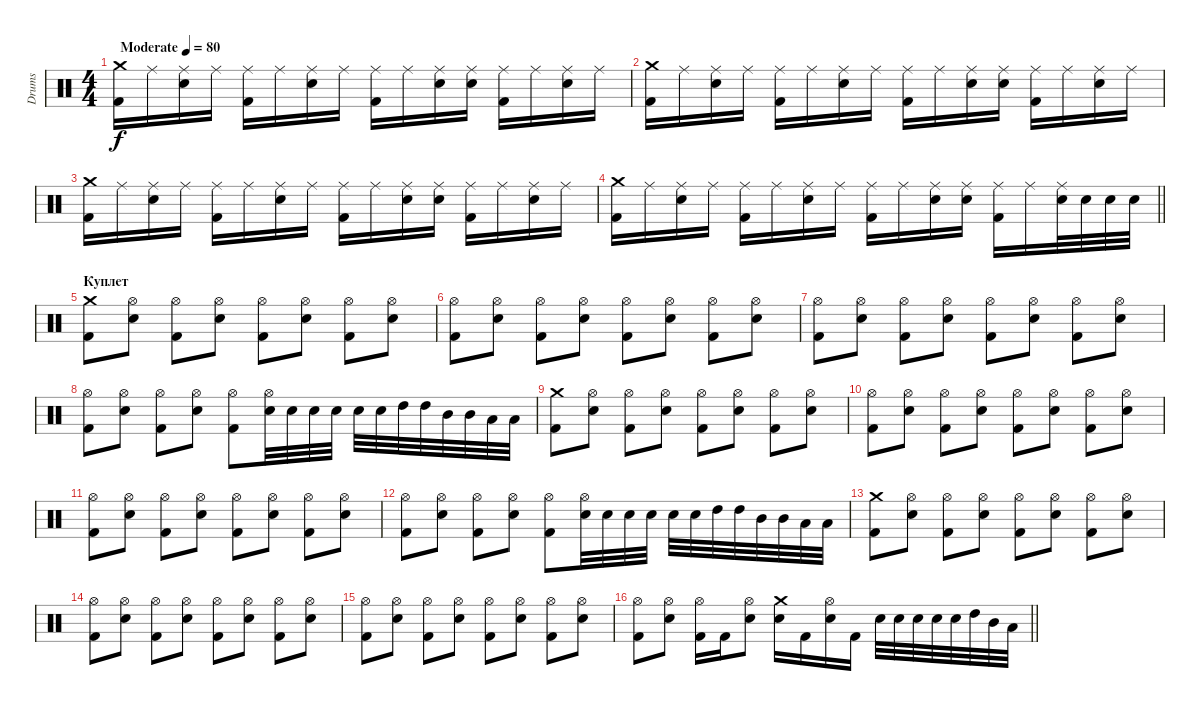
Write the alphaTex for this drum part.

\track ("Drums" "Drums") {instrument percussion}
\staff {score}
\articulation defaults
\ts (4 4)
\tempo (80 "Moderate")
\clef neutral
\ks c
("Crash medium (hit)" "Kick (hit) 2").16{dy f} "Ride (middle)".16 ("Ride (middle)" "Snare (hit) 2").16 "Ride (middle)".16 ("Ride (middle)" "Kick (hit) 2").16 "Ride (middle)".16 ("Ride (middle)" "Snare (hit) 2").16 "Ride (middle)".16 ("Ride (middle)" "Kick (hit) 2").16 "Ride (middle)".16 ("Ride (middle)" "Snare (hit) 2").16 ("Ride (middle)" "Snare (hit) 2").16 ("Ride (middle)" "Kick (hit) 2").16 "Ride (middle)".16 ("Ride (middle)" "Snare (hit) 2").16 "Ride (middle)".16 |
("Crash medium (hit)" "Kick (hit) 2").16 "Ride (middle)".16 ("Ride (middle)" "Snare (hit) 2").16 "Ride (middle)".16 ("Ride (middle)" "Kick (hit) 2").16 "Ride (middle)".16 ("Ride (middle)" "Snare (hit) 2").16 "Ride (middle)".16 ("Ride (middle)" "Kick (hit) 2").16 "Ride (middle)".16 ("Ride (middle)" "Snare (hit) 2").16 ("Ride (middle)" "Snare (hit) 2").16 ("Ride (middle)" "Kick (hit) 2").16 "Ride (middle)".16 ("Ride (middle)" "Snare (hit) 2").16 "Ride (middle)".16 |
("Crash medium (hit)" "Kick (hit) 2").16 "Ride (middle)".16 ("Ride (middle)" "Snare (hit) 2").16 "Ride (middle)".16 ("Ride (middle)" "Kick (hit) 2").16 "Ride (middle)".16 ("Ride (middle)" "Snare (hit) 2").16 "Ride (middle)".16 ("Ride (middle)" "Kick (hit) 2").16 "Ride (middle)".16 ("Ride (middle)" "Snare (hit) 2").16 ("Ride (middle)" "Snare (hit) 2").16 ("Ride (middle)" "Kick (hit) 2").16 "Ride (middle)".16 ("Ride (middle)" "Snare (hit) 2").16 "Ride (middle)".16 |
\barLineRight lightlight
("Crash medium (hit)" "Kick (hit) 2").16 "Ride (middle)".16 ("Ride (middle)" "Snare (hit) 2").16 "Ride (middle)".16 ("Ride (middle)" "Kick (hit) 2").16 "Ride (middle)".16 ("Ride (middle)" "Snare (hit) 2").16 "Ride (middle)".16 ("Ride (middle)" "Kick (hit) 2").16 "Ride (middle)".16 ("Ride (middle)" "Snare (hit) 2").16 ("Ride (middle)" "Snare (hit) 2").16 ("Ride (middle)" "Kick (hit) 2").16 "Ride (middle)".16 ("Ride (middle)" "Snare (hit) 2").32 "Snare (hit) 2".32 "Snare (hit) 2".32 "Snare (hit) 2".32 |
\section ("" "Куплет")
("Crash medium (hit)" "Kick (hit) 2").8 ("Hi-Hat (open)" "Snare (hit) 2").8 ("Hi-Hat (open)" "Kick (hit) 2").8 ("Hi-Hat (open)" "Snare (hit) 2").8 ("Hi-Hat (open)" "Kick (hit) 2").8 ("Hi-Hat (open)" "Snare (hit) 2").8 ("Hi-Hat (open)" "Kick (hit) 2").8 ("Hi-Hat (open)" "Snare (hit) 2").8 |
("Hi-Hat (open)" "Kick (hit) 2").8 ("Hi-Hat (open)" "Snare (hit) 2").8 ("Hi-Hat (open)" "Kick (hit) 2").8 ("Hi-Hat (open)" "Snare (hit) 2").8 ("Hi-Hat (open)" "Kick (hit) 2").8 ("Hi-Hat (open)" "Snare (hit) 2").8 ("Hi-Hat (open)" "Kick (hit) 2").8 ("Hi-Hat (open)" "Snare (hit) 2").8 |
("Hi-Hat (open)" "Kick (hit) 2").8 ("Hi-Hat (open)" "Snare (hit) 2").8 ("Hi-Hat (open)" "Kick (hit) 2").8 ("Hi-Hat (open)" "Snare (hit) 2").8 ("Hi-Hat (open)" "Kick (hit) 2").8 ("Hi-Hat (open)" "Snare (hit) 2").8 ("Hi-Hat (open)" "Kick (hit) 2").8 ("Hi-Hat (open)" "Snare (hit) 2").8 |
("Hi-Hat (open)" "Kick (hit) 2").8 ("Hi-Hat (open)" "Snare (hit) 2").8 ("Hi-Hat (open)" "Kick (hit) 2").8 ("Hi-Hat (open)" "Snare (hit) 2").8 ("Hi-Hat (open)" "Kick (hit) 2").8 ("Hi-Hat (open)" "Snare (hit) 2").32 "Snare (hit) 2".32 "Snare (hit) 2".32 "Snare (hit) 2".32 "Snare (hit) 2".32 "Snare (hit) 2".32 "High Tom (hit)".32 "High Tom (hit)".32 "Mid Tom (hit)".32 "Mid Tom (hit)".32 "Low Tom (hit)".32 "Low Tom (hit)".32 |
("Crash medium (hit)" "Kick (hit) 2").8 ("Hi-Hat (open)" "Snare (hit) 2").8 ("Hi-Hat (open)" "Kick (hit) 2").8 ("Hi-Hat (open)" "Snare (hit) 2").8 ("Hi-Hat (open)" "Kick (hit) 2").8 ("Hi-Hat (open)" "Snare (hit) 2").8 ("Hi-Hat (open)" "Kick (hit) 2").8 ("Hi-Hat (open)" "Snare (hit) 2").8 |
("Hi-Hat (open)" "Kick (hit) 2").8 ("Hi-Hat (open)" "Snare (hit) 2").8 ("Hi-Hat (open)" "Kick (hit) 2").8 ("Hi-Hat (open)" "Snare (hit) 2").8 ("Hi-Hat (open)" "Kick (hit) 2").8 ("Hi-Hat (open)" "Snare (hit) 2").8 ("Hi-Hat (open)" "Kick (hit) 2").8 ("Hi-Hat (open)" "Snare (hit) 2").8 |
("Hi-Hat (open)" "Kick (hit) 2").8 ("Hi-Hat (open)" "Snare (hit) 2").8 ("Hi-Hat (open)" "Kick (hit) 2").8 ("Hi-Hat (open)" "Snare (hit) 2").8 ("Hi-Hat (open)" "Kick (hit) 2").8 ("Hi-Hat (open)" "Snare (hit) 2").8 ("Hi-Hat (open)" "Kick (hit) 2").8 ("Hi-Hat (open)" "Snare (hit) 2").8 |
("Hi-Hat (open)" "Kick (hit) 2").8 ("Hi-Hat (open)" "Snare (hit) 2").8 ("Hi-Hat (open)" "Kick (hit) 2").8 ("Hi-Hat (open)" "Snare (hit) 2").8 ("Hi-Hat (open)" "Kick (hit) 2").8 ("Hi-Hat (open)" "Snare (hit) 2").32 "Snare (hit) 2".32 "Snare (hit) 2".32 "Snare (hit) 2".32 "Snare (hit) 2".32 "Snare (hit) 2".32 "High Tom (hit)".32 "High Tom (hit)".32 "Mid Tom (hit)".32 "Mid Tom (hit)".32 "Low Tom (hit)".32 "Low Tom (hit)".32 |
("Crash medium (hit)" "Kick (hit) 2").8 ("Hi-Hat (open)" "Snare (hit) 2").8 ("Hi-Hat (open)" "Kick (hit) 2").8 ("Hi-Hat (open)" "Snare (hit) 2").8 ("Hi-Hat (open)" "Kick (hit) 2").8 ("Hi-Hat (open)" "Snare (hit) 2").8 ("Hi-Hat (open)" "Kick (hit) 2").8 ("Hi-Hat (open)" "Snare (hit) 2").8 |
("Hi-Hat (open)" "Kick (hit) 2").8 ("Hi-Hat (open)" "Snare (hit) 2").8 ("Hi-Hat (open)" "Kick (hit) 2").8 ("Hi-Hat (open)" "Snare (hit) 2").8 ("Hi-Hat (open)" "Kick (hit) 2").8 ("Hi-Hat (open)" "Snare (hit) 2").8 ("Hi-Hat (open)" "Kick (hit) 2").8 ("Hi-Hat (open)" "Snare (hit) 2").8 |
("Hi-Hat (open)" "Kick (hit) 2").8 ("Hi-Hat (open)" "Snare (hit) 2").8 ("Hi-Hat (open)" "Kick (hit) 2").8 ("Hi-Hat (open)" "Snare (hit) 2").8 ("Hi-Hat (open)" "Kick (hit) 2").8 ("Hi-Hat (open)" "Snare (hit) 2").8 ("Hi-Hat (open)" "Kick (hit) 2").8 ("Hi-Hat (open)" "Snare (hit) 2").8 |
\barLineRight lightlight
("Hi-Hat (open)" "Kick (hit) 2").8 ("Hi-Hat (open)" "Snare (hit) 2").8 ("Hi-Hat (open)" "Kick (hit) 2").16 "Kick (hit) 2".16 ("Hi-Hat (open)" "Snare (hit) 2").8 ("Crash medium (hit)" "Snare (hit) 2").16 "Kick (hit) 2".16 ("Hi-Hat (open)" "Snare (hit) 2").16 "Kick (hit) 2".16 "Snare (hit) 2".32 "Snare (hit) 2".32 "Snare (hit) 2".32 "Snare (hit) 2".32 "Snare (hit) 2".32 "High Tom (hit)".32 "Mid Tom (hit)".32 "Low Tom (hit)".32
